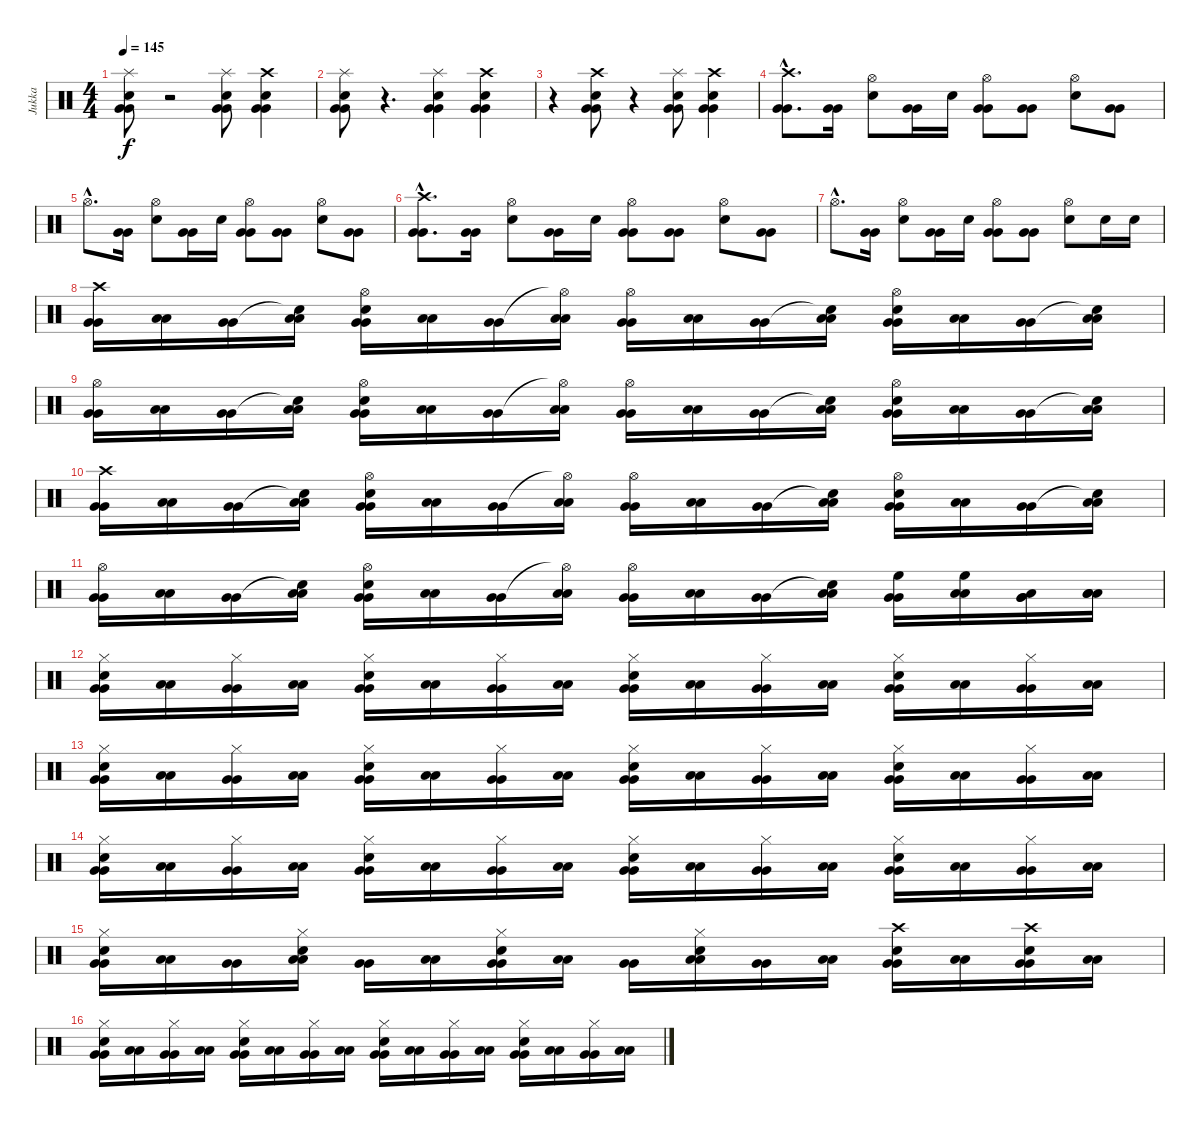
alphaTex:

\track ("Jukka" "Jukka") {instrument percussion}
\staff {score}
\articulation defaults
\ts (4 4)
\tempo 145
\clef neutral
\ks c
("Splash (hit)" "Electric Snare (hit)" "Very Low Tom (hit)" "Very Low Tom (hit)").8{dy f} r.2 ("Splash (hit)" "Electric Snare (hit)" "Very Low Tom (hit)" "Very Low Tom (hit)").8 ("Crash high (hit)" "Electric Snare (hit)" "Very Low Tom (hit)" "Very Low Tom (hit)").4 |
("Splash (hit)" "Electric Snare (hit)" "Very Low Tom (hit)" "Very Low Tom (hit)").8 r.4{d} ("Splash (hit)" "Electric Snare (hit)" "Very Low Tom (hit)" "Very Low Tom (hit)").4 ("Crash high (hit)" "Electric Snare (hit)" "Very Low Tom (hit)" "Very Low Tom (hit)").4 |
r.4 ("Crash high (hit)" "Electric Snare (hit)" "Very Low Tom (hit)" "Very Low Tom (hit)").8 r.4 ("Splash (hit)" "Electric Snare (hit)" "Very Low Tom (hit)" "Very Low Tom (hit)").8 ("Crash high (hit)" "Electric Snare (hit)" "Very Low Tom (hit)" "Very Low Tom (hit)").4 |
("Crash high (hit)"{hac} "Very Low Tom (hit)"{hac} "Very Low Tom (hit)"{hac}).8{d} ("Very Low Tom (hit)" "Very Low Tom (hit)").16 ("Hi-Hat (open)" "Electric Snare (hit)").8 ("Very Low Tom (hit)" "Very Low Tom (hit)").16 "Electric Snare (hit)".16 ("Hi-Hat (open)" "Very Low Tom (hit)" "Very Low Tom (hit)").8 ("Very Low Tom (hit)" "Very Low Tom (hit)").8 ("Hi-Hat (open)" "Electric Snare (hit)").8 ("Very Low Tom (hit)" "Very Low Tom (hit)").8 |
"Hi-Hat (open)"{hac}.8{d} ("Very Low Tom (hit)" "Very Low Tom (hit)").16 ("Hi-Hat (open)" "Electric Snare (hit)").8 ("Very Low Tom (hit)" "Very Low Tom (hit)").16 "Electric Snare (hit)".16 ("Hi-Hat (open)" "Very Low Tom (hit)" "Very Low Tom (hit)").8 ("Very Low Tom (hit)" "Very Low Tom (hit)").8 ("Hi-Hat (open)" "Electric Snare (hit)").8 ("Very Low Tom (hit)" "Very Low Tom (hit)").8 |
("Crash high (hit)"{hac} "Very Low Tom (hit)"{hac} "Very Low Tom (hit)"{hac}).8{d} ("Very Low Tom (hit)" "Very Low Tom (hit)").16 ("Hi-Hat (open)" "Electric Snare (hit)").8 ("Very Low Tom (hit)" "Very Low Tom (hit)").16 "Electric Snare (hit)".16 ("Hi-Hat (open)" "Very Low Tom (hit)" "Very Low Tom (hit)").8 ("Very Low Tom (hit)" "Very Low Tom (hit)").8 ("Hi-Hat (open)" "Electric Snare (hit)").8 ("Very Low Tom (hit)" "Very Low Tom (hit)").8 |
"Hi-Hat (open)"{hac}.8{d} ("Very Low Tom (hit)" "Very Low Tom (hit)").16 ("Hi-Hat (open)" "Electric Snare (hit)").8 ("Very Low Tom (hit)" "Very Low Tom (hit)").16 "Electric Snare (hit)".16 ("Hi-Hat (open)" "Very Low Tom (hit)" "Very Low Tom (hit)").8 ("Very Low Tom (hit)" "Very Low Tom (hit)").8 ("Hi-Hat (open)" "Electric Snare (hit)").8 "Electric Snare (hit)".16 "Electric Snare (hit)".16 |
("Crash high (hit)" "Very Low Tom (hit)" "Very Low Tom (hit)").16 ("Low Floor Tom (hit)" "Low Floor Tom (hit)").16 ("Very Low Tom (hit)" "Very Low Tom (hit)").16 ("Snare (hit)"{t} "Low Floor Tom (hit)" "Low Floor Tom (hit)").16 ("Hi-Hat (open)" "Electric Snare (hit)" "Very Low Tom (hit)" "Very Low Tom (hit)").16 ("Low Floor Tom (hit)" "Low Floor Tom (hit)").16 ("Very Low Tom (hit)" "Very Low Tom (hit)").16 ("Hi-Hat (open)"{t} "Low Floor Tom (hit)" "Low Floor Tom (hit)").16 ("Hi-Hat (open)" "Very Low Tom (hit)" "Very Low Tom (hit)").16 ("Low Floor Tom (hit)" "Low Floor Tom (hit)").16 ("Very Low Tom (hit)" "Very Low Tom (hit)").16 ("Snare (hit)"{t} "Low Floor Tom (hit)" "Low Floor Tom (hit)").16 ("Hi-Hat (open)" "Electric Snare (hit)" "Very Low Tom (hit)" "Very Low Tom (hit)").16 ("Low Floor Tom (hit)" "Low Floor Tom (hit)").16 ("Very Low Tom (hit)" "Very Low Tom (hit)").16 ("Snare (hit)"{t} "Low Floor Tom (hit)" "Low Floor Tom (hit)").16 |
("Hi-Hat (open)" "Very Low Tom (hit)" "Very Low Tom (hit)").16 ("Low Floor Tom (hit)" "Low Floor Tom (hit)").16 ("Very Low Tom (hit)" "Very Low Tom (hit)").16 ("Snare (hit)"{t} "Low Floor Tom (hit)" "Low Floor Tom (hit)").16 ("Hi-Hat (open)" "Electric Snare (hit)" "Very Low Tom (hit)" "Very Low Tom (hit)").16 ("Low Floor Tom (hit)" "Low Floor Tom (hit)").16 ("Very Low Tom (hit)" "Very Low Tom (hit)").16 ("Hi-Hat (open)"{t} "Low Floor Tom (hit)" "Low Floor Tom (hit)").16 ("Hi-Hat (open)" "Very Low Tom (hit)" "Very Low Tom (hit)").16 ("Low Floor Tom (hit)" "Low Floor Tom (hit)").16 ("Very Low Tom (hit)" "Very Low Tom (hit)").16 ("Snare (hit)"{t} "Low Floor Tom (hit)" "Low Floor Tom (hit)").16 ("Hi-Hat (open)" "Electric Snare (hit)" "Very Low Tom (hit)" "Very Low Tom (hit)").16 ("Low Floor Tom (hit)" "Low Floor Tom (hit)").16 ("Very Low Tom (hit)" "Very Low Tom (hit)").16 ("Snare (hit)"{t} "Low Floor Tom (hit)" "Low Floor Tom (hit)").16 |
("Crash high (hit)" "Very Low Tom (hit)" "Very Low Tom (hit)").16 ("Low Floor Tom (hit)" "Low Floor Tom (hit)").16 ("Very Low Tom (hit)" "Very Low Tom (hit)").16 ("Snare (hit)"{t} "Low Floor Tom (hit)" "Low Floor Tom (hit)").16 ("Hi-Hat (open)" "Electric Snare (hit)" "Very Low Tom (hit)" "Very Low Tom (hit)").16 ("Low Floor Tom (hit)" "Low Floor Tom (hit)").16 ("Very Low Tom (hit)" "Very Low Tom (hit)").16 ("Hi-Hat (open)"{t} "Low Floor Tom (hit)" "Low Floor Tom (hit)").16 ("Hi-Hat (open)" "Very Low Tom (hit)" "Very Low Tom (hit)").16 ("Low Floor Tom (hit)" "Low Floor Tom (hit)").16 ("Very Low Tom (hit)" "Very Low Tom (hit)").16 ("Snare (hit)"{t} "Low Floor Tom (hit)" "Low Floor Tom (hit)").16 ("Hi-Hat (open)" "Electric Snare (hit)" "Very Low Tom (hit)" "Very Low Tom (hit)").16 ("Low Floor Tom (hit)" "Low Floor Tom (hit)").16 ("Very Low Tom (hit)" "Very Low Tom (hit)").16 ("Snare (hit)"{t} "Low Floor Tom (hit)" "Low Floor Tom (hit)").16 |
("Hi-Hat (open)" "Very Low Tom (hit)" "Very Low Tom (hit)").16 ("Low Floor Tom (hit)" "Low Floor Tom (hit)").16 ("Very Low Tom (hit)" "Very Low Tom (hit)").16 ("Snare (hit)"{t} "Low Floor Tom (hit)" "Low Floor Tom (hit)").16 ("Hi-Hat (open)" "Electric Snare (hit)" "Very Low Tom (hit)" "Very Low Tom (hit)").16 ("Low Floor Tom (hit)" "Low Floor Tom (hit)").16 ("Very Low Tom (hit)" "Very Low Tom (hit)").16 ("Hi-Hat (open)"{t} "Low Floor Tom (hit)" "Low Floor Tom (hit)").16 ("Hi-Hat (open)" "Very Low Tom (hit)" "Very Low Tom (hit)").16 ("Low Floor Tom (hit)" "Low Floor Tom (hit)").16 ("Very Low Tom (hit)" "Very Low Tom (hit)").16 ("Snare (hit)"{t} "Low Floor Tom (hit)" "Low Floor Tom (hit)").16 ("High Floor Tom (hit)" "Very Low Tom (hit)" "Very Low Tom (hit)").16 ("High Floor Tom (hit)" "Low Floor Tom (hit)" "Low Floor Tom (hit)").16 ("Low Tom (hit)" "Very Low Tom (hit)" "Very Low Tom (hit)").16 ("Low Tom (hit)" "Low Floor Tom (hit)" "Low Floor Tom (hit)").16 |
("Hi-Hat (closed)" "Electric Snare (hit)" "Very Low Tom (hit)" "Very Low Tom (hit)").16 ("Low Floor Tom (hit)" "Low Floor Tom (hit)").16 ("Hi-Hat (closed)" "Very Low Tom (hit)" "Very Low Tom (hit)").16 ("Low Floor Tom (hit)" "Low Floor Tom (hit)").16 ("Hi-Hat (closed)" "Electric Snare (hit)" "Very Low Tom (hit)" "Very Low Tom (hit)").16 ("Low Floor Tom (hit)" "Low Floor Tom (hit)").16 ("Hi-Hat (closed)" "Very Low Tom (hit)" "Very Low Tom (hit)").16 ("Low Floor Tom (hit)" "Low Floor Tom (hit)").16 ("Hi-Hat (closed)" "Electric Snare (hit)" "Very Low Tom (hit)" "Very Low Tom (hit)").16 ("Low Floor Tom (hit)" "Low Floor Tom (hit)").16 ("Hi-Hat (closed)" "Very Low Tom (hit)" "Very Low Tom (hit)").16 ("Low Floor Tom (hit)" "Low Floor Tom (hit)").16 ("Hi-Hat (closed)" "Electric Snare (hit)" "Very Low Tom (hit)" "Very Low Tom (hit)").16 ("Low Floor Tom (hit)" "Low Floor Tom (hit)").16 ("Hi-Hat (closed)" "Very Low Tom (hit)" "Very Low Tom (hit)").16 ("Low Floor Tom (hit)" "Low Floor Tom (hit)").16 |
("Hi-Hat (closed)" "Electric Snare (hit)" "Very Low Tom (hit)" "Very Low Tom (hit)").16 ("Low Floor Tom (hit)" "Low Floor Tom (hit)").16 ("Hi-Hat (closed)" "Very Low Tom (hit)" "Very Low Tom (hit)").16 ("Low Floor Tom (hit)" "Low Floor Tom (hit)").16 ("Hi-Hat (closed)" "Electric Snare (hit)" "Very Low Tom (hit)" "Very Low Tom (hit)").16 ("Low Floor Tom (hit)" "Low Floor Tom (hit)").16 ("Hi-Hat (closed)" "Very Low Tom (hit)" "Very Low Tom (hit)").16 ("Low Floor Tom (hit)" "Low Floor Tom (hit)").16 ("Hi-Hat (closed)" "Electric Snare (hit)" "Very Low Tom (hit)" "Very Low Tom (hit)").16 ("Low Floor Tom (hit)" "Low Floor Tom (hit)").16 ("Hi-Hat (closed)" "Very Low Tom (hit)" "Very Low Tom (hit)").16 ("Low Floor Tom (hit)" "Low Floor Tom (hit)").16 ("Hi-Hat (closed)" "Electric Snare (hit)" "Very Low Tom (hit)" "Very Low Tom (hit)").16 ("Low Floor Tom (hit)" "Low Floor Tom (hit)").16 ("Hi-Hat (closed)" "Very Low Tom (hit)" "Very Low Tom (hit)").16 ("Low Floor Tom (hit)" "Low Floor Tom (hit)").16 |
("Hi-Hat (closed)" "Electric Snare (hit)" "Very Low Tom (hit)" "Very Low Tom (hit)").16 ("Low Floor Tom (hit)" "Low Floor Tom (hit)").16 ("Hi-Hat (closed)" "Very Low Tom (hit)" "Very Low Tom (hit)").16 ("Low Floor Tom (hit)" "Low Floor Tom (hit)").16 ("Hi-Hat (closed)" "Electric Snare (hit)" "Very Low Tom (hit)" "Very Low Tom (hit)").16 ("Low Floor Tom (hit)" "Low Floor Tom (hit)").16 ("Hi-Hat (closed)" "Very Low Tom (hit)" "Very Low Tom (hit)").16 ("Low Floor Tom (hit)" "Low Floor Tom (hit)").16 ("Hi-Hat (closed)" "Electric Snare (hit)" "Very Low Tom (hit)" "Very Low Tom (hit)").16 ("Low Floor Tom (hit)" "Low Floor Tom (hit)").16 ("Hi-Hat (closed)" "Very Low Tom (hit)" "Very Low Tom (hit)").16 ("Low Floor Tom (hit)" "Low Floor Tom (hit)").16 ("Hi-Hat (closed)" "Electric Snare (hit)" "Very Low Tom (hit)" "Very Low Tom (hit)").16 ("Low Floor Tom (hit)" "Low Floor Tom (hit)").16 ("Hi-Hat (closed)" "Very Low Tom (hit)" "Very Low Tom (hit)").16 ("Low Floor Tom (hit)" "Low Floor Tom (hit)").16 |
("Hi-Hat (closed)" "Electric Snare (hit)" "Very Low Tom (hit)" "Very Low Tom (hit)").16 ("Low Floor Tom (hit)" "Low Floor Tom (hit)").16 ("Very Low Tom (hit)" "Very Low Tom (hit)").16 ("Hi-Hat (closed)" "Electric Snare (hit)" "Low Floor Tom (hit)" "Low Floor Tom (hit)").16 ("Very Low Tom (hit)" "Very Low Tom (hit)").16 ("Low Floor Tom (hit)" "Low Floor Tom (hit)").16 ("Hi-Hat (closed)" "Electric Snare (hit)" "Very Low Tom (hit)" "Very Low Tom (hit)").16 ("Low Floor Tom (hit)" "Low Floor Tom (hit)").16 ("Very Low Tom (hit)" "Very Low Tom (hit)").16 ("Hi-Hat (closed)" "Electric Snare (hit)" "Low Floor Tom (hit)" "Low Floor Tom (hit)").16 ("Very Low Tom (hit)" "Very Low Tom (hit)").16 ("Low Floor Tom (hit)" "Low Floor Tom (hit)").16 ("Crash high (hit)" "Electric Snare (hit)" "Very Low Tom (hit)" "Very Low Tom (hit)").16 ("Low Floor Tom (hit)" "Low Floor Tom (hit)").16 ("Crash high (hit)" "Electric Snare (hit)" "Very Low Tom (hit)" "Very Low Tom (hit)").16 ("Low Floor Tom (hit)" "Low Floor Tom (hit)").16 |
("Hi-Hat (closed)" "Electric Snare (hit)" "Very Low Tom (hit)" "Very Low Tom (hit)").16 ("Low Floor Tom (hit)" "Low Floor Tom (hit)").16 ("Hi-Hat (closed)" "Very Low Tom (hit)" "Very Low Tom (hit)").16 ("Low Floor Tom (hit)" "Low Floor Tom (hit)").16 ("Hi-Hat (closed)" "Electric Snare (hit)" "Very Low Tom (hit)" "Very Low Tom (hit)").16 ("Low Floor Tom (hit)" "Low Floor Tom (hit)").16 ("Hi-Hat (closed)" "Very Low Tom (hit)" "Very Low Tom (hit)").16 ("Low Floor Tom (hit)" "Low Floor Tom (hit)").16 ("Hi-Hat (closed)" "Electric Snare (hit)" "Very Low Tom (hit)" "Very Low Tom (hit)").16 ("Low Floor Tom (hit)" "Low Floor Tom (hit)").16 ("Hi-Hat (closed)" "Very Low Tom (hit)" "Very Low Tom (hit)").16 ("Low Floor Tom (hit)" "Low Floor Tom (hit)").16 ("Hi-Hat (closed)" "Electric Snare (hit)" "Very Low Tom (hit)" "Very Low Tom (hit)").16 ("Low Floor Tom (hit)" "Low Floor Tom (hit)").16 ("Hi-Hat (closed)" "Very Low Tom (hit)" "Very Low Tom (hit)").16 ("Low Floor Tom (hit)" "Low Floor Tom (hit)").16
